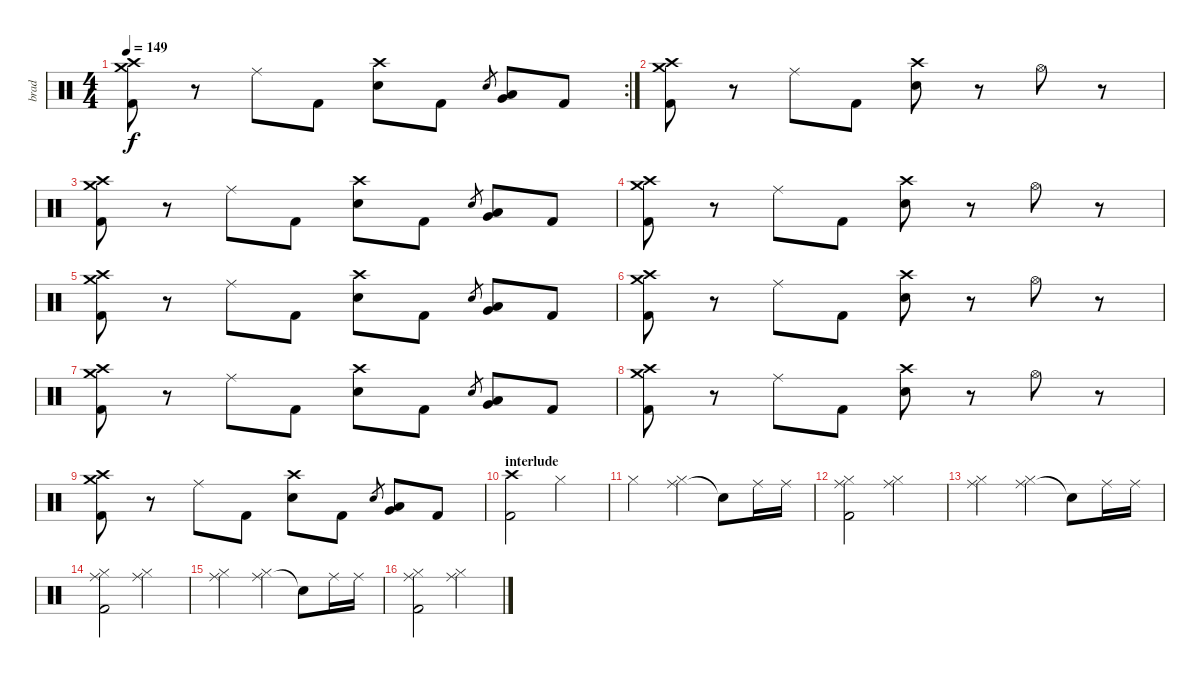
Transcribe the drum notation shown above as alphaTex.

\track ("brad" "brad") {instrument percussion}
\staff {score}
\articulation defaults
\rc 2
\ts (4 4)
\tempo 149
\clef neutral
\ks c
("Crash medium (hit)" "Crash high (hit)" "Kick (hit) 2").8{dy f} r.8 "Ride (middle)".8 "Kick (hit) 2".8 ("Crash high (hit)" "Electric Snare (hit)").8 "Kick (hit) 2".8 "Electric Snare (hit)".8{gr} ("Very Low Tom (hit)" "Low Floor Tom (hit)").8 "Kick (hit) 2".8 |
("Crash medium (hit)" "Crash high (hit)" "Kick (hit) 2").8 r.8 "Ride (middle)".8 "Kick (hit) 2".8 ("Crash high (hit)" "Electric Snare (hit)").8 r.8 "Hi-Hat (open)".8 r.8 |
("Crash medium (hit)" "Crash high (hit)" "Kick (hit) 2").8 r.8 "Ride (middle)".8 "Kick (hit) 2".8 ("Crash high (hit)" "Electric Snare (hit)").8 "Kick (hit) 2".8 "Electric Snare (hit)".8{gr} ("Very Low Tom (hit)" "Low Floor Tom (hit)").8 "Kick (hit) 2".8 |
("Crash medium (hit)" "Crash high (hit)" "Kick (hit) 2").8 r.8 "Ride (middle)".8 "Kick (hit) 2".8 ("Crash high (hit)" "Electric Snare (hit)").8 r.8 "Hi-Hat (open)".8 r.8 |
("Crash medium (hit)" "Crash high (hit)" "Kick (hit) 2").8 r.8 "Ride (middle)".8 "Kick (hit) 2".8 ("Crash high (hit)" "Electric Snare (hit)").8 "Kick (hit) 2".8 "Electric Snare (hit)".8{gr} ("Very Low Tom (hit)" "Low Floor Tom (hit)").8 "Kick (hit) 2".8 |
("Crash medium (hit)" "Crash high (hit)" "Kick (hit) 2").8 r.8 "Ride (middle)".8 "Kick (hit) 2".8 ("Crash high (hit)" "Electric Snare (hit)").8 r.8 "Hi-Hat (open)".8 r.8 |
("Crash medium (hit)" "Crash high (hit)" "Kick (hit) 2").8 r.8 "Ride (middle)".8 "Kick (hit) 2".8 ("Crash high (hit)" "Electric Snare (hit)").8 "Kick (hit) 2".8 "Electric Snare (hit)".8{gr} ("Very Low Tom (hit)" "Low Floor Tom (hit)").8 "Kick (hit) 2".8 |
("Crash medium (hit)" "Crash high (hit)" "Kick (hit) 2").8 r.8 "Ride (middle)".8 "Kick (hit) 2".8 ("Crash high (hit)" "Electric Snare (hit)").8 r.8 "Hi-Hat (open)".8 r.8 |
("Crash medium (hit)" "Crash high (hit)" "Kick (hit) 2").8 r.8 "Ride (middle)".8 "Kick (hit) 2".8 ("Crash high (hit)" "Electric Snare (hit)").8 "Kick (hit) 2".8 "Electric Snare (hit)".8{gr} ("Very Low Tom (hit)" "Low Floor Tom (hit)").8 "Kick (hit) 2".8 |
\section ("" "interlude")
("Crash high (hit)" "Kick (hit) 2").2 "Hi-Hat (closed)".2 |
"Hi-Hat (closed)".2 ("Ride (middle)" "Hi-Hat (closed)").4 "Snare (hit)"{t}.8 "Ride (middle)".16 "Ride (middle)".16 |
("Ride (middle)" "Hi-Hat (closed)" "Kick (hit) 2").2 ("Ride (middle)" "Hi-Hat (closed)").2 |
("Ride (middle)" "Hi-Hat (closed)").2 ("Ride (middle)" "Hi-Hat (closed)").4 "Snare (hit)"{t}.8 "Ride (middle)".16 "Ride (middle)".16 |
("Ride (middle)" "Hi-Hat (closed)" "Kick (hit) 2").2 ("Ride (middle)" "Hi-Hat (closed)").2 |
("Ride (middle)" "Hi-Hat (closed)").2 ("Ride (middle)" "Hi-Hat (closed)").4 "Snare (hit)"{t}.8 "Ride (middle)".16 "Ride (middle)".16 |
("Ride (middle)" "Hi-Hat (closed)" "Kick (hit) 2").2 ("Ride (middle)" "Hi-Hat (closed)").2
